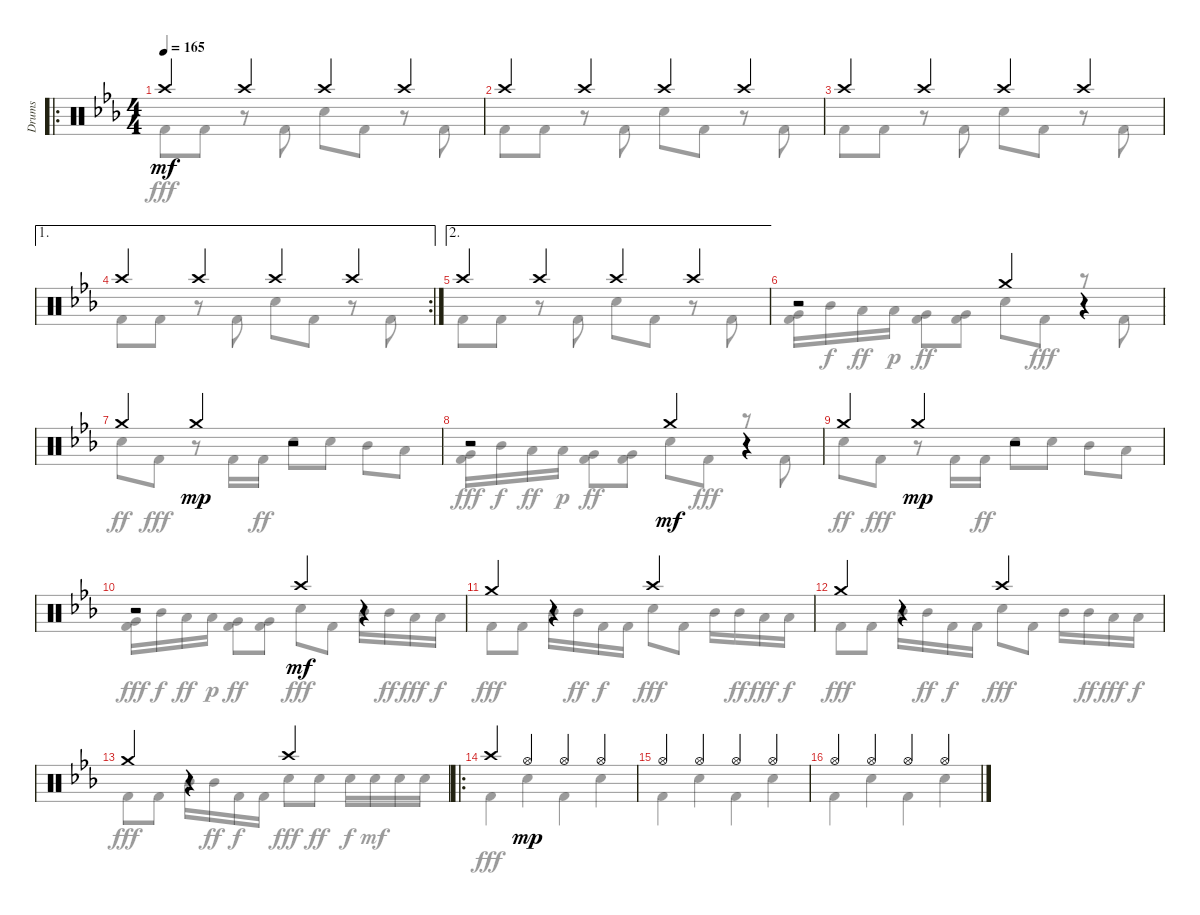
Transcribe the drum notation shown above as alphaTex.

\track ("Drums" "Drums") {instrument percussion}
\staff {score}
\articulation defaults
\voice
\ro
\ts (4 4)
\tempo 165
\clef neutral
\ks cminor "Crash high (hit)".4{dy mf} "Crash high (hit)".4 "Crash high (hit)".4 "Crash high (hit)".4
|
"Crash high (hit)".4 "Crash high (hit)".4 "Crash high (hit)".4 "Crash high (hit)".4 |
"Crash high (hit)".4 "Crash high (hit)".4 "Crash high (hit)".4 "Crash high (hit)".4 |
\ae 1
\rc 2 "Crash high (hit)".4 "Crash high (hit)".4 "Crash high (hit)".4 "Crash high (hit)".4
|
\ae 2 "Crash high (hit)".4 "Crash high (hit)".4 "Crash high (hit)".4 "Crash high (hit)".4
|
r.2 "Crash medium (hit)".4 r.4 |
"Crash medium (hit)".4 "Crash medium (hit)".4{dy mp} r.2 |
r.2 "Crash medium (hit)".4{dy mf} r.4 |
"Crash medium (hit)".4 "Crash medium (hit)".4{dy mp} r.2 |
r.2 "Crash high (hit)".4{dy mf} r.4 |
"Crash medium (hit)".4 r.4 "Crash high (hit)".2 |
"Crash medium (hit)".4 r.4 "Crash high (hit)".2 |
"Crash medium (hit)".4 r.4 "Crash high (hit)".2 |
\ro "Crash high (hit)".4 "Hi-Hat (open)".4{dy mp} "Hi-Hat (open)".4 "Hi-Hat (open)".4
|
"Hi-Hat (open)".4 "Hi-Hat (open)".4 "Hi-Hat (open)".4 "Hi-Hat (open)".4 |
"Hi-Hat (open)".4 "Hi-Hat (open)".4 "Hi-Hat (open)".4 "Hi-Hat (open)".4
\voice
\clef neutral
\ottava regular
\simile none
\ks cminor "Kick (hit) 2".8{dy fff} "Kick (hit) 2".8
r.8 "Kick (hit) 2".8 "Electric Snare (hit)".8 "Kick (hit) 2".8 r.8 "Kick (hit) 2".8 |
"Kick (hit) 2".8 "Kick (hit) 2".8 r.8 "Kick (hit) 2".8 "Electric Snare (hit)".8 "Kick (hit) 2".8 r.8 "Kick (hit) 2".8 |
"Kick (hit) 2".8 "Kick (hit) 2".8 r.8 "Kick (hit) 2".8 "Electric Snare (hit)".8 "Kick (hit) 2".8 r.8 "Kick (hit) 2".8 |
"Kick (hit) 2".8 "Kick (hit) 2".8 r.8 "Kick (hit) 2".8 "Electric Snare (hit)".8 "Kick (hit) 2".8 r.8 "Kick (hit) 2".8 |
"Kick (hit) 2".8 "Kick (hit) 2".8 r.8 "Kick (hit) 2".8 "Electric Snare (hit)".8 "Kick (hit) 2".8 r.8 "Kick (hit) 2".8 |
("Very Low Tom (hit)" "Kick (hit) 2").16 "Mid Tom (hit)".16{dy f} "Low Tom (hit)".16{dy ff} "Low Tom (hit)".16{dy p} ("Very Low Tom (hit)" "Kick (hit) 2").8{dy ff} ("Very Low Tom (hit)" "Kick (hit) 2").8 "Electric Snare (hit)".8 "Kick (hit) 2".8{dy fff} r.8 "Kick (hit) 2".8 |
"Electric Snare (hit)".8{dy ff} "Kick (hit) 2".8{dy fff} r.8 "Kick (hit) 2".16 "Kick (hit) 2".16{dy ff} "Electric Snare (hit)".8 "Electric Snare (hit)".8 "Mid Tom (hit)".8 "Low Tom (hit)".8 |
("Very Low Tom (hit)" "Kick (hit) 2").16{dy fff} "Mid Tom (hit)".16{dy f} "Low Tom (hit)".16{dy ff} "Low Tom (hit)".16{dy p} ("Very Low Tom (hit)" "Kick (hit) 2").8{dy ff} ("Very Low Tom (hit)" "Kick (hit) 2").8 "Electric Snare (hit)".8 "Kick (hit) 2".8{dy fff} r.8 "Kick (hit) 2".8 |
"Electric Snare (hit)".8{dy ff} "Kick (hit) 2".8{dy fff} r.8 "Kick (hit) 2".16 "Kick (hit) 2".16{dy ff} "Electric Snare (hit)".8 "Electric Snare (hit)".8 "Mid Tom (hit)".8 "Low Tom (hit)".8 |
("Very Low Tom (hit)" "Kick (hit) 2").16{dy fff} "Mid Tom (hit)".16{dy f} "Low Tom (hit)".16{dy ff} "Low Tom (hit)".16{dy p} ("Very Low Tom (hit)" "Kick (hit) 2").8{dy ff} ("Very Low Tom (hit)" "Kick (hit) 2").8 "Electric Snare (hit)".8{dy fff} "Kick (hit) 2".8 "Mid Tom (hit)".16 "Mid Tom (hit)".16{dy ff} "Low Tom (hit)".16{dy fff} "Low Tom (hit)".16{dy f} |
"Kick (hit) 2".8{dy fff} "Kick (hit) 2".8 "Mid Tom (hit)".16 "Mid Tom (hit)".16{dy ff} "Kick (hit) 2".16{dy f} "Kick (hit) 2".16 "Electric Snare (hit)".8{dy fff} "Kick (hit) 2".8 "Mid Tom (hit)".16 "Mid Tom (hit)".16{dy ff} "Low Tom (hit)".16{dy fff} "Low Tom (hit)".16{dy f} |
"Kick (hit) 2".8{dy fff} "Kick (hit) 2".8 "Mid Tom (hit)".16 "Mid Tom (hit)".16{dy ff} "Kick (hit) 2".16{dy f} "Kick (hit) 2".16 "Electric Snare (hit)".8{dy fff} "Kick (hit) 2".8 "Mid Tom (hit)".16 "Mid Tom (hit)".16{dy ff} "Low Tom (hit)".16{dy fff} "Low Tom (hit)".16{dy f} |
"Kick (hit) 2".8{dy fff} "Kick (hit) 2".8 "Mid Tom (hit)".16 "Mid Tom (hit)".16{dy ff} "Kick (hit) 2".16{dy f} "Kick (hit) 2".16 "Electric Snare (hit)".8{dy fff} "Electric Snare (hit)".8{dy ff} "Electric Snare (hit)".16{dy f} "Electric Snare (hit)".16{dy mf} "Electric Snare (hit)".16 "Electric Snare (hit)".16 |
"Kick (hit) 2".4{dy fff} "Electric Snare (hit)".4 "Kick (hit) 2".4 "Electric Snare (hit)".4 |
"Kick (hit) 2".4 "Electric Snare (hit)".4 "Kick (hit) 2".4 "Electric Snare (hit)".4 |
"Kick (hit) 2".4 "Electric Snare (hit)".4 "Kick (hit) 2".4 "Electric Snare (hit)".4
